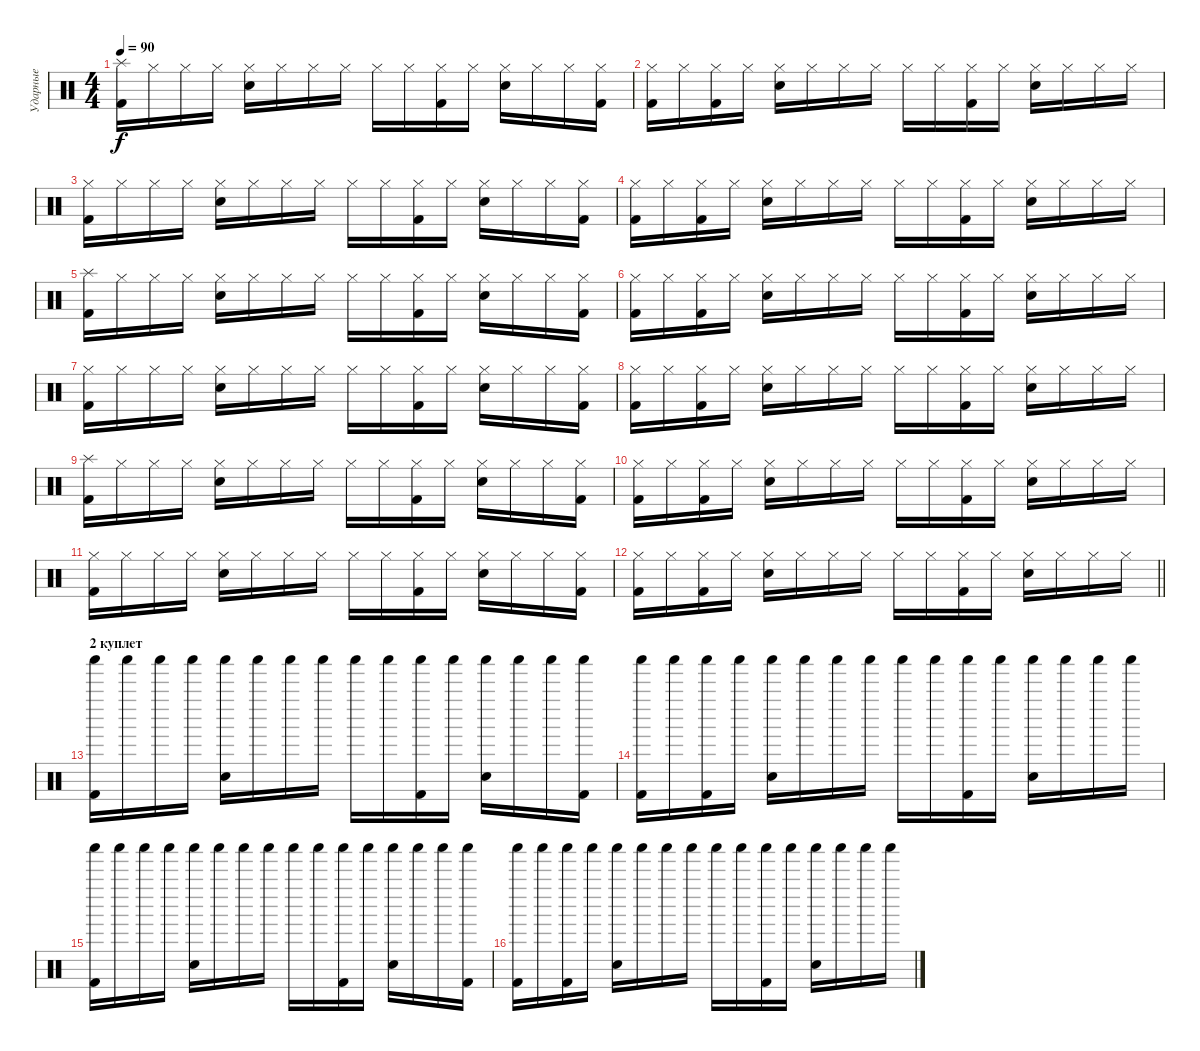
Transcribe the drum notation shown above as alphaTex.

\track ("Ударные" "Ударные") {instrument percussion}
\staff {score}
\articulation defaults
\ts (4 4)
\tempo 90
\clef neutral
\ks c
("Splash (hit)" "Kick (hit) 2").16{dy f} "Hi-Hat (closed)".16 "Hi-Hat (closed)".16 "Hi-Hat (closed)".16 ("Hi-Hat (closed)" "Electric Snare (hit)").16 "Hi-Hat (closed)".16 "Hi-Hat (closed)".16 "Hi-Hat (closed)".16 "Hi-Hat (closed)".16 "Hi-Hat (closed)".16 ("Hi-Hat (closed)" "Kick (hit) 2").16 "Hi-Hat (closed)".16 ("Hi-Hat (closed)" "Electric Snare (hit)").16 "Hi-Hat (closed)".16 "Hi-Hat (closed)".16 ("Hi-Hat (closed)" "Kick (hit) 2").16 |
("Hi-Hat (closed)" "Kick (hit) 2").16 "Hi-Hat (closed)".16 ("Hi-Hat (closed)" "Kick (hit) 2").16 "Hi-Hat (closed)".16 ("Hi-Hat (closed)" "Electric Snare (hit)").16 "Hi-Hat (closed)".16 "Hi-Hat (closed)".16 "Hi-Hat (closed)".16 "Hi-Hat (closed)".16 "Hi-Hat (closed)".16 ("Hi-Hat (closed)" "Kick (hit) 2").16 "Hi-Hat (closed)".16 ("Hi-Hat (closed)" "Electric Snare (hit)").16 "Hi-Hat (closed)".16 "Hi-Hat (closed)".16 "Hi-Hat (closed)".16 |
("Hi-Hat (closed)" "Kick (hit) 2").16 "Hi-Hat (closed)".16 "Hi-Hat (closed)".16 "Hi-Hat (closed)".16 ("Hi-Hat (closed)" "Electric Snare (hit)").16 "Hi-Hat (closed)".16 "Hi-Hat (closed)".16 "Hi-Hat (closed)".16 "Hi-Hat (closed)".16 "Hi-Hat (closed)".16 ("Hi-Hat (closed)" "Kick (hit) 2").16 "Hi-Hat (closed)".16 ("Hi-Hat (closed)" "Electric Snare (hit)").16 "Hi-Hat (closed)".16 "Hi-Hat (closed)".16 ("Hi-Hat (closed)" "Kick (hit) 2").16 |
("Hi-Hat (closed)" "Kick (hit) 2").16 "Hi-Hat (closed)".16 ("Hi-Hat (closed)" "Kick (hit) 2").16 "Hi-Hat (closed)".16 ("Hi-Hat (closed)" "Electric Snare (hit)").16 "Hi-Hat (closed)".16 "Hi-Hat (closed)".16 "Hi-Hat (closed)".16 "Hi-Hat (closed)".16 "Hi-Hat (closed)".16 ("Hi-Hat (closed)" "Kick (hit) 2").16 "Hi-Hat (closed)".16 ("Hi-Hat (closed)" "Electric Snare (hit)").16 "Hi-Hat (closed)".16 "Hi-Hat (closed)".16 "Hi-Hat (closed)".16 |
("Splash (hit)" "Kick (hit) 2").16 "Hi-Hat (closed)".16 "Hi-Hat (closed)".16 "Hi-Hat (closed)".16 ("Hi-Hat (closed)" "Electric Snare (hit)").16 "Hi-Hat (closed)".16 "Hi-Hat (closed)".16 "Hi-Hat (closed)".16 "Hi-Hat (closed)".16 "Hi-Hat (closed)".16 ("Hi-Hat (closed)" "Kick (hit) 2").16 "Hi-Hat (closed)".16 ("Hi-Hat (closed)" "Electric Snare (hit)").16 "Hi-Hat (closed)".16 "Hi-Hat (closed)".16 ("Hi-Hat (closed)" "Kick (hit) 2").16 |
("Hi-Hat (closed)" "Kick (hit) 2").16 "Hi-Hat (closed)".16 ("Hi-Hat (closed)" "Kick (hit) 2").16 "Hi-Hat (closed)".16 ("Hi-Hat (closed)" "Electric Snare (hit)").16 "Hi-Hat (closed)".16 "Hi-Hat (closed)".16 "Hi-Hat (closed)".16 "Hi-Hat (closed)".16 "Hi-Hat (closed)".16 ("Hi-Hat (closed)" "Kick (hit) 2").16 "Hi-Hat (closed)".16 ("Hi-Hat (closed)" "Electric Snare (hit)").16 "Hi-Hat (closed)".16 "Hi-Hat (closed)".16 "Hi-Hat (closed)".16 |
("Hi-Hat (closed)" "Kick (hit) 2").16 "Hi-Hat (closed)".16 "Hi-Hat (closed)".16 "Hi-Hat (closed)".16 ("Hi-Hat (closed)" "Electric Snare (hit)").16 "Hi-Hat (closed)".16 "Hi-Hat (closed)".16 "Hi-Hat (closed)".16 "Hi-Hat (closed)".16 "Hi-Hat (closed)".16 ("Hi-Hat (closed)" "Kick (hit) 2").16 "Hi-Hat (closed)".16 ("Hi-Hat (closed)" "Electric Snare (hit)").16 "Hi-Hat (closed)".16 "Hi-Hat (closed)".16 ("Hi-Hat (closed)" "Kick (hit) 2").16 |
("Hi-Hat (closed)" "Kick (hit) 2").16 "Hi-Hat (closed)".16 ("Hi-Hat (closed)" "Kick (hit) 2").16 "Hi-Hat (closed)".16 ("Hi-Hat (closed)" "Electric Snare (hit)").16 "Hi-Hat (closed)".16 "Hi-Hat (closed)".16 "Hi-Hat (closed)".16 "Hi-Hat (closed)".16 "Hi-Hat (closed)".16 ("Hi-Hat (closed)" "Kick (hit) 2").16 "Hi-Hat (closed)".16 ("Hi-Hat (closed)" "Electric Snare (hit)").16 "Hi-Hat (closed)".16 "Hi-Hat (closed)".16 "Hi-Hat (closed)".16 |
("Splash (hit)" "Kick (hit) 2").16 "Hi-Hat (closed)".16 "Hi-Hat (closed)".16 "Hi-Hat (closed)".16 ("Hi-Hat (closed)" "Electric Snare (hit)").16 "Hi-Hat (closed)".16 "Hi-Hat (closed)".16 "Hi-Hat (closed)".16 "Hi-Hat (closed)".16 "Hi-Hat (closed)".16 ("Hi-Hat (closed)" "Kick (hit) 2").16 "Hi-Hat (closed)".16 ("Hi-Hat (closed)" "Electric Snare (hit)").16 "Hi-Hat (closed)".16 "Hi-Hat (closed)".16 ("Hi-Hat (closed)" "Kick (hit) 2").16 |
("Hi-Hat (closed)" "Kick (hit) 2").16 "Hi-Hat (closed)".16 ("Hi-Hat (closed)" "Kick (hit) 2").16 "Hi-Hat (closed)".16 ("Hi-Hat (closed)" "Electric Snare (hit)").16 "Hi-Hat (closed)".16 "Hi-Hat (closed)".16 "Hi-Hat (closed)".16 "Hi-Hat (closed)".16 "Hi-Hat (closed)".16 ("Hi-Hat (closed)" "Kick (hit) 2").16 "Hi-Hat (closed)".16 ("Hi-Hat (closed)" "Electric Snare (hit)").16 "Hi-Hat (closed)".16 "Hi-Hat (closed)".16 "Hi-Hat (closed)".16 |
("Hi-Hat (closed)" "Kick (hit) 2").16 "Hi-Hat (closed)".16 "Hi-Hat (closed)".16 "Hi-Hat (closed)".16 ("Hi-Hat (closed)" "Electric Snare (hit)").16 "Hi-Hat (closed)".16 "Hi-Hat (closed)".16 "Hi-Hat (closed)".16 "Hi-Hat (closed)".16 "Hi-Hat (closed)".16 ("Hi-Hat (closed)" "Kick (hit) 2").16 "Hi-Hat (closed)".16 ("Hi-Hat (closed)" "Electric Snare (hit)").16 "Hi-Hat (closed)".16 "Hi-Hat (closed)".16 ("Hi-Hat (closed)" "Kick (hit) 2").16 |
\barLineRight lightlight
("Hi-Hat (closed)" "Kick (hit) 2").16 "Hi-Hat (closed)".16 ("Hi-Hat (closed)" "Kick (hit) 2").16 "Hi-Hat (closed)".16 ("Hi-Hat (closed)" "Electric Snare (hit)").16 "Hi-Hat (closed)".16 "Hi-Hat (closed)".16 "Hi-Hat (closed)".16 "Hi-Hat (closed)".16 "Hi-Hat (closed)".16 ("Hi-Hat (closed)" "Kick (hit) 2").16 "Hi-Hat (closed)".16 ("Hi-Hat (closed)" "Electric Snare (hit)").16 "Hi-Hat (closed)".16 "Hi-Hat (closed)".16 "Hi-Hat (closed)".16 |
\section ("" "2 куплет")
("Shaker (hit)" "Kick (hit) 2").16 "Shaker (hit)".16 "Shaker (hit)".16 "Shaker (hit)".16 ("Shaker (hit)" "Electric Snare (hit)").16 "Shaker (hit)".16 "Shaker (hit)".16 "Shaker (hit)".16 "Shaker (hit)".16 "Shaker (hit)".16 ("Shaker (hit)" "Kick (hit) 2").16 "Shaker (hit)".16 ("Shaker (hit)" "Electric Snare (hit)").16 "Shaker (hit)".16 "Shaker (hit)".16 ("Shaker (hit)" "Kick (hit) 2").16 |
("Shaker (hit)" "Kick (hit) 2").16 "Shaker (hit)".16 ("Shaker (hit)" "Kick (hit) 2").16 "Shaker (hit)".16 ("Shaker (hit)" "Electric Snare (hit)").16 "Shaker (hit)".16 "Shaker (hit)".16 "Shaker (hit)".16 "Shaker (hit)".16 "Shaker (hit)".16 ("Shaker (hit)" "Kick (hit) 2").16 "Shaker (hit)".16 ("Shaker (hit)" "Electric Snare (hit)").16 "Shaker (hit)".16 "Shaker (hit)".16 "Shaker (hit)".16 |
("Shaker (hit)" "Kick (hit) 2").16 "Shaker (hit)".16 "Shaker (hit)".16 "Shaker (hit)".16 ("Shaker (hit)" "Electric Snare (hit)").16 "Shaker (hit)".16 "Shaker (hit)".16 "Shaker (hit)".16 "Shaker (hit)".16 "Shaker (hit)".16 ("Shaker (hit)" "Kick (hit) 2").16 "Shaker (hit)".16 ("Shaker (hit)" "Electric Snare (hit)").16 "Shaker (hit)".16 "Shaker (hit)".16 ("Shaker (hit)" "Kick (hit) 2").16 |
("Shaker (hit)" "Kick (hit) 2").16 "Shaker (hit)".16 ("Shaker (hit)" "Kick (hit) 2").16 "Shaker (hit)".16 ("Shaker (hit)" "Electric Snare (hit)").16 "Shaker (hit)".16 "Shaker (hit)".16 "Shaker (hit)".16 "Shaker (hit)".16 "Shaker (hit)".16 ("Shaker (hit)" "Kick (hit) 2").16 "Shaker (hit)".16 ("Shaker (hit)" "Electric Snare (hit)").16 "Shaker (hit)".16 "Shaker (hit)".16 "Shaker (hit)".16
